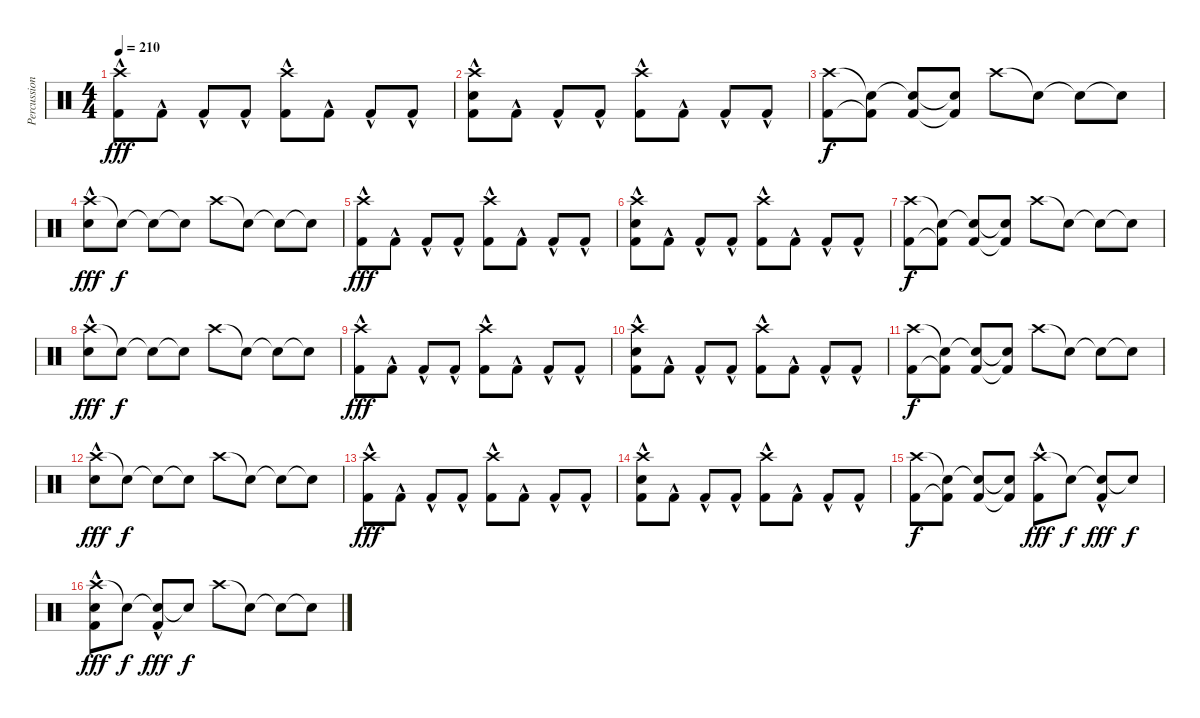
\track ("Percussion" "Percussion") {instrument percussion}
\staff {score}
\articulation defaults
\ts (4 4)
\tempo 210
\clef neutral
\ks c
("Crash high (hit)" "Kick (hit) 2"{hac}).8{dy fff} "Kick (hit) 2"{hac}.8 "Kick (hit) 2"{hac}.8 "Kick (hit) 2"{hac}.8 ("Crash high (hit)" "Kick (hit) 2"{hac}).8 "Kick (hit) 2"{hac}.8 "Kick (hit) 2"{hac}.8 "Kick (hit) 2"{hac}.8 |
("Crash high (hit)" "Electric Snare (hit)"{hac} "Kick (hit) 2"{hac}).8 "Kick (hit) 2"{hac}.8 "Kick (hit) 2"{hac}.8 "Kick (hit) 2"{hac}.8 ("Crash high (hit)" "Kick (hit) 2"{hac}).8 "Kick (hit) 2"{hac}.8 "Kick (hit) 2"{hac}.8 "Kick (hit) 2"{hac}.8 |
("Crash high (hit)" "Kick (hit) 2").8{dy f} ("Snare (hit)"{t} "Kick (hit) 2"{t}).8 ("Snare (hit)"{t} "Kick (hit) 2").8 ("Snare (hit)"{t} "Kick (hit) 2"{t}).8 "Crash high (hit)".8 "Snare (hit)"{t}.8 "Snare (hit)"{t}.8 "Snare (hit)"{t}.8 |
("Crash high (hit)" "Electric Snare (hit)"{hac}).8{dy fff} "Snare (hit)"{t}.8{dy f} "Snare (hit)"{t}.8 "Snare (hit)"{t}.8 "Crash high (hit)".8 "Snare (hit)"{t}.8 "Snare (hit)"{t}.8 "Snare (hit)"{t}.8 |
("Crash high (hit)" "Kick (hit) 2"{hac}).8{dy fff} "Kick (hit) 2"{hac}.8 "Kick (hit) 2"{hac}.8 "Kick (hit) 2"{hac}.8 ("Crash high (hit)" "Kick (hit) 2"{hac}).8 "Kick (hit) 2"{hac}.8 "Kick (hit) 2"{hac}.8 "Kick (hit) 2"{hac}.8 |
("Crash high (hit)" "Electric Snare (hit)"{hac} "Kick (hit) 2"{hac}).8 "Kick (hit) 2"{hac}.8 "Kick (hit) 2"{hac}.8 "Kick (hit) 2"{hac}.8 ("Crash high (hit)" "Kick (hit) 2"{hac}).8 "Kick (hit) 2"{hac}.8 "Kick (hit) 2"{hac}.8 "Kick (hit) 2"{hac}.8 |
("Crash high (hit)" "Kick (hit) 2").8{dy f} ("Snare (hit)"{t} "Kick (hit) 2"{t}).8 ("Snare (hit)"{t} "Kick (hit) 2").8 ("Snare (hit)"{t} "Kick (hit) 2"{t}).8 "Crash high (hit)".8 "Snare (hit)"{t}.8 "Snare (hit)"{t}.8 "Snare (hit)"{t}.8 |
("Crash high (hit)" "Electric Snare (hit)"{hac}).8{dy fff} "Snare (hit)"{t}.8{dy f} "Snare (hit)"{t}.8 "Snare (hit)"{t}.8 "Crash high (hit)".8 "Snare (hit)"{t}.8 "Snare (hit)"{t}.8 "Snare (hit)"{t}.8 |
("Crash high (hit)" "Kick (hit) 2"{hac}).8{dy fff} "Kick (hit) 2"{hac}.8 "Kick (hit) 2"{hac}.8 "Kick (hit) 2"{hac}.8 ("Crash high (hit)" "Kick (hit) 2"{hac}).8 "Kick (hit) 2"{hac}.8 "Kick (hit) 2"{hac}.8 "Kick (hit) 2"{hac}.8 |
("Crash high (hit)" "Electric Snare (hit)"{hac} "Kick (hit) 2"{hac}).8 "Kick (hit) 2"{hac}.8 "Kick (hit) 2"{hac}.8 "Kick (hit) 2"{hac}.8 ("Crash high (hit)" "Kick (hit) 2"{hac}).8 "Kick (hit) 2"{hac}.8 "Kick (hit) 2"{hac}.8 "Kick (hit) 2"{hac}.8 |
("Crash high (hit)" "Kick (hit) 2").8{dy f} ("Snare (hit)"{t} "Kick (hit) 2"{t}).8 ("Snare (hit)"{t} "Kick (hit) 2").8 ("Snare (hit)"{t} "Kick (hit) 2"{t}).8 "Crash high (hit)".8 "Snare (hit)"{t}.8 "Snare (hit)"{t}.8 "Snare (hit)"{t}.8 |
("Crash high (hit)" "Electric Snare (hit)"{hac}).8{dy fff} "Snare (hit)"{t}.8{dy f} "Snare (hit)"{t}.8 "Snare (hit)"{t}.8 "Crash high (hit)".8 "Snare (hit)"{t}.8 "Snare (hit)"{t}.8 "Snare (hit)"{t}.8 |
("Crash high (hit)" "Kick (hit) 2"{hac}).8{dy fff} "Kick (hit) 2"{hac}.8 "Kick (hit) 2"{hac}.8 "Kick (hit) 2"{hac}.8 ("Crash high (hit)" "Kick (hit) 2"{hac}).8 "Kick (hit) 2"{hac}.8 "Kick (hit) 2"{hac}.8 "Kick (hit) 2"{hac}.8 |
("Crash high (hit)" "Electric Snare (hit)"{hac} "Kick (hit) 2"{hac}).8 "Kick (hit) 2"{hac}.8 "Kick (hit) 2"{hac}.8 "Kick (hit) 2"{hac}.8 ("Crash high (hit)" "Kick (hit) 2"{hac}).8 "Kick (hit) 2"{hac}.8 "Kick (hit) 2"{hac}.8 "Kick (hit) 2"{hac}.8 |
("Crash high (hit)" "Kick (hit) 2").8{dy f} ("Snare (hit)"{t} "Kick (hit) 2"{t}).8 ("Snare (hit)"{t} "Kick (hit) 2").8 ("Snare (hit)"{t} "Kick (hit) 2"{t}).8 ("Crash high (hit)" "Kick (hit) 2"{hac}).8{dy fff} "Snare (hit)"{t}.8{dy f} ("Snare (hit)"{t} "Kick (hit) 2"{hac}).8{dy fff} "Snare (hit)"{t}.8{dy f} |
("Crash high (hit)" "Electric Snare (hit)"{hac} "Kick (hit) 2"{hac}).8{dy fff} "Snare (hit)"{t}.8{dy f} ("Snare (hit)"{t} "Kick (hit) 2"{hac}).8{dy fff} "Snare (hit)"{t}.8{dy f} "Crash high (hit)".8 "Snare (hit)"{t}.8 "Snare (hit)"{t}.8 "Snare (hit)"{t}.8
